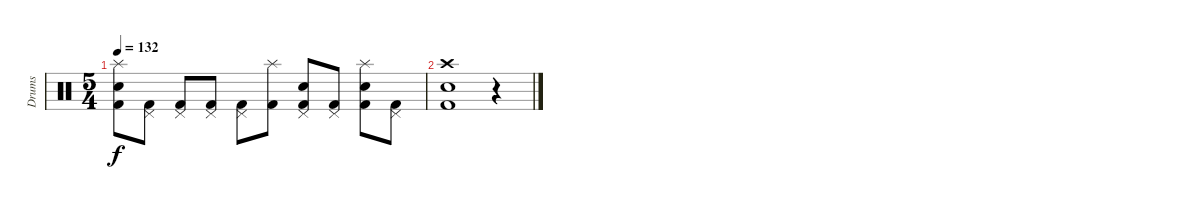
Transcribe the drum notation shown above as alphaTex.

\track ("Drums" "Drums") {instrument percussion}
\staff {score}
\articulation defaults
\ts (5 4)
\tempo 132
\clef neutral
\ks c
("Splash (hit)" "Snare (hit) 2" "Kick (hit) 2").8{dy f} ("Pedal Hi-Hat (hit)" "Kick (hit) 2").8 ("Pedal Hi-Hat (hit)" "Kick (hit) 2").8 ("Pedal Hi-Hat (hit)" "Kick (hit) 2").8 ("Pedal Hi-Hat (hit)" "Kick (hit) 2").8 ("Splash (hit)" "Kick (hit) 2").8 ("Pedal Hi-Hat (hit)" "Snare (hit) 2" "Kick (hit) 2").8 ("Pedal Hi-Hat (hit)" "Kick (hit) 2").8 ("Splash (hit)" "Snare (hit) 2" "Kick (hit) 2").8 ("Pedal Hi-Hat (hit)" "Kick (hit) 2").8 |
("Crash high (hit)" "Snare (hit) 2" "Kick (hit) 2").1 r.4
